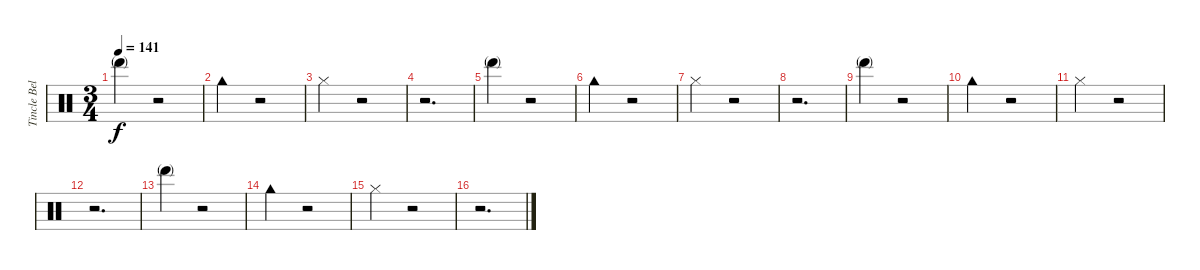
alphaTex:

\track ("Tincle Bell" "Tincle Bel") {instrument percussion}
\staff {score}
\articulation defaults
\ts (3 4)
\tempo 141
\clef neutral
\ks c "Hand (mute)".4{dy f}
r.2 |
"Cowbell high (hit)".4 r.2 |
"Cowbell high (tip)".4 r.2 |
r.2{d} |
"Hand (mute)".4 r.2 |
"Cowbell high (hit)".4 r.2 |
"Cowbell high (tip)".4 r.2 |
r.2{d} |
"Hand (mute)".4 r.2 |
"Cowbell high (hit)".4 r.2 |
"Cowbell high (tip)".4 r.2 |
r.2{d} |
"Hand (mute)".4 r.2 |
"Cowbell high (hit)".4 r.2 |
"Cowbell high (tip)".4 r.2 |
r.2{d}
